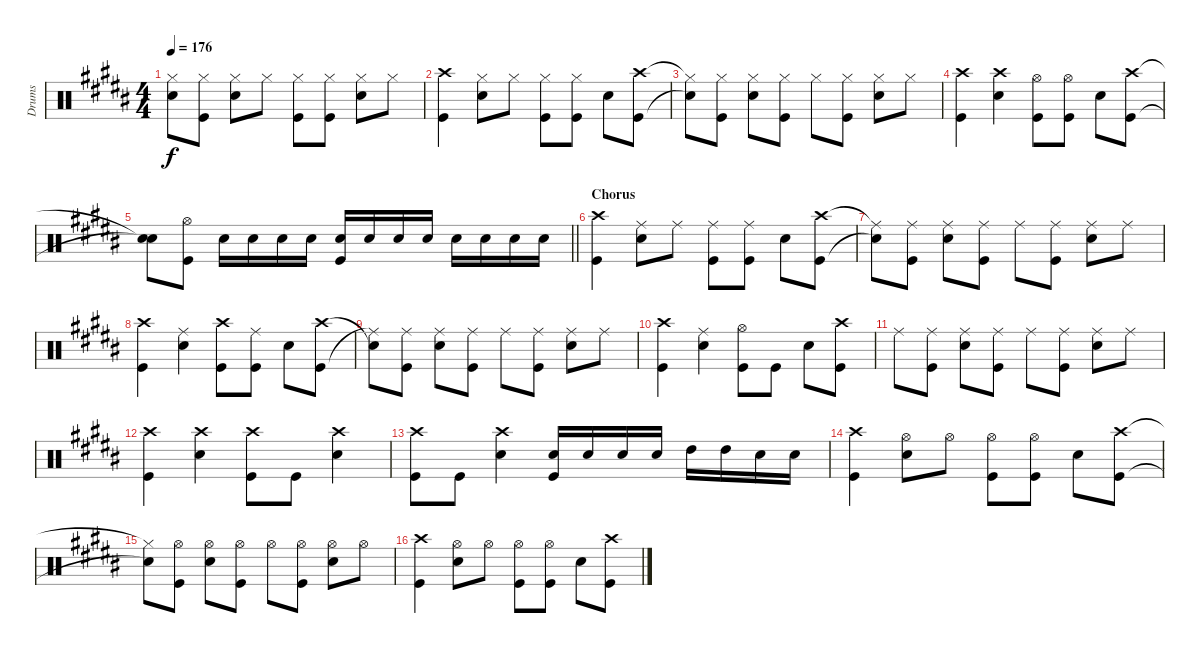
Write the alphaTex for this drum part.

\track ("Drums" "Drums") {instrument percussion}
\staff {score}
\articulation defaults
\ts (4 4)
\tempo 176
\clef neutral
\ks b
("Hi-Hat (closed)"{t} "Snare (hit)"{t}).8{dy f} ("Kick (hit)" "Hi-Hat (closed)").8 ("Snare (hit) 2" "Hi-Hat (closed)").8 "Hi-Hat (closed)".8 ("Hi-Hat (closed)" "Kick (hit)").8 ("Hi-Hat (closed)" "Kick (hit)").8 ("Hi-Hat (closed)" "Snare (hit) 2").8 "Hi-Hat (closed)".8 |
("Kick (hit)" "Crash high (hit)").4 ("Snare (hit) 2" "Hi-Hat (closed)").8 "Hi-Hat (closed)".8 ("Hi-Hat (closed)" "Kick (hit)").8 ("Hi-Hat (closed)" "Kick (hit)").8 "Snare (hit) 2".8 ("Crash high (hit)" "Kick (hit)").8 |
("Hi-Hat (closed)"{t} "Snare (hit)"{t}).8 ("Hi-Hat (closed)" "Kick (hit)").8 ("Hi-Hat (closed)" "Snare (hit) 2").8 ("Hi-Hat (closed)" "Kick (hit)").8 "Hi-Hat (closed)".8 ("Hi-Hat (closed)" "Kick (hit)").8 ("Hi-Hat (closed)" "Snare (hit) 2").8 "Hi-Hat (closed)".8 |
("Kick (hit)" "Crash high (hit)").4 ("Snare (hit) 2" "Crash high (hit)").4 ("Hi-Hat (open)" "Kick (hit)").8 ("Hi-Hat (open)" "Kick (hit)").8 "Snare (hit) 2".8 ("Kick (hit)" "Crash high (hit)").8 |
\barLineRight lightlight
("Snare (hit)"{t} "Snare (hit)"{t}).8 ("Kick (hit)" "Hi-Hat (open)").8 "Snare (hit) 2".16 "Snare (hit) 2".16 "Snare (hit) 2".16 "Snare (hit) 2".16 ("Kick (hit)" "Snare (hit) 2").16 "Snare (hit) 2".16 "Snare (hit) 2".16 "Snare (hit) 2".16 "Snare (hit) 2".16 "Snare (hit) 2".16 "Snare (hit) 2".16 "Snare (hit) 2".16 |
\section ("" "Chorus")
("Kick (hit)" "Crash high (hit)").4 ("Snare (hit) 2" "Ride (middle)").8 "Ride (middle)".8 ("Ride (middle)" "Kick (hit)").8 ("Ride (middle)" "Kick (hit)").8 "Snare (hit) 2".8 ("Crash high (hit)" "Kick (hit)").8 |
("Ride (middle)"{t} "Snare (hit)"{t}).8 ("Ride (middle)" "Kick (hit)").8 ("Ride (middle)" "Snare (hit) 2").8 ("Ride (middle)" "Kick (hit)").8 "Ride (middle)".8 ("Ride (middle)" "Kick (hit)").8 ("Ride (middle)" "Snare (hit) 2").8 "Ride (middle)".8 |
("Kick (hit)" "Crash high (hit)").4 ("Snare (hit) 2" "Ride (middle)").4 ("Crash high (hit)" "Kick (hit)").8 ("Ride (middle)" "Kick (hit)").8 "Snare (hit) 2".8 ("Kick (hit)" "Crash high (hit)").8 |
("Ride (middle)"{t} "Snare (hit)"{t}).8 ("Ride (middle)" "Kick (hit)").8 ("Snare (hit) 2" "Ride (middle)").8 ("Ride (middle)" "Kick (hit)").8 "Ride (middle)".8 ("Ride (middle)" "Kick (hit)").8 ("Ride (middle)" "Snare (hit) 2").8 "Ride (middle)".8 |
("Kick (hit)" "Crash high (hit)").4 ("Snare (hit) 2" "Ride (middle)").4 ("Kick (hit)" "Hi-Hat (open)").8 "Kick (hit)".8 "Snare (hit) 2".8 ("Kick (hit)" "Crash high (hit)").8 |
"Ride (middle)".8 ("Ride (middle)" "Kick (hit)").8 ("Ride (middle)" "Snare (hit) 2").8 ("Ride (middle)" "Kick (hit)").8 "Ride (middle)".8 ("Ride (middle)" "Kick (hit)").8 ("Ride (middle)" "Snare (hit) 2").8 "Ride (middle)".8 |
("Kick (hit)" "Crash high (hit)").4 ("Snare (hit) 2" "Crash high (hit)").4 ("Kick (hit)" "Crash high (hit)").8 "Kick (hit)".8 ("Snare (hit) 2" "Crash high (hit)").4 |
("Kick (hit)" "Crash high (hit)").8 "Kick (hit)".8 ("Snare (hit) 2" "Crash high (hit)").4 ("Kick (hit)" "Snare (hit) 2").16 "Snare (hit) 2".16 "Snare (hit) 2".16 "Snare (hit) 2".16 "High Tom (hit)".16 "High Tom (hit)".16 "Snare (hit) 2".16 "Snare (hit) 2".16 |
("Kick (hit)" "Crash high (hit)").4 ("Snare (hit) 2" "Hi-Hat (open)").8 "Hi-Hat (open)".8 ("Hi-Hat (open)" "Kick (hit)").8 ("Hi-Hat (open)" "Kick (hit)").8 "Snare (hit) 2".8 ("Crash high (hit)" "Kick (hit)").8 |
("Hi-Hat (closed)"{t} "Snare (hit)"{t}).8 ("Kick (hit)" "Hi-Hat (open)").8 ("Snare (hit) 2" "Hi-Hat (open)").8 ("Hi-Hat (open)" "Kick (hit)").8 "Hi-Hat (open)".8 ("Hi-Hat (open)" "Kick (hit)").8 ("Hi-Hat (open)" "Snare (hit) 2").8 "Hi-Hat (open)".8 |
("Kick (hit)" "Crash high (hit)").4 ("Snare (hit) 2" "Hi-Hat (open)").8 "Hi-Hat (open)".8 ("Hi-Hat (open)" "Kick (hit)").8 ("Hi-Hat (open)" "Kick (hit)").8 "Snare (hit) 2".8 ("Crash high (hit)" "Kick (hit)").8
